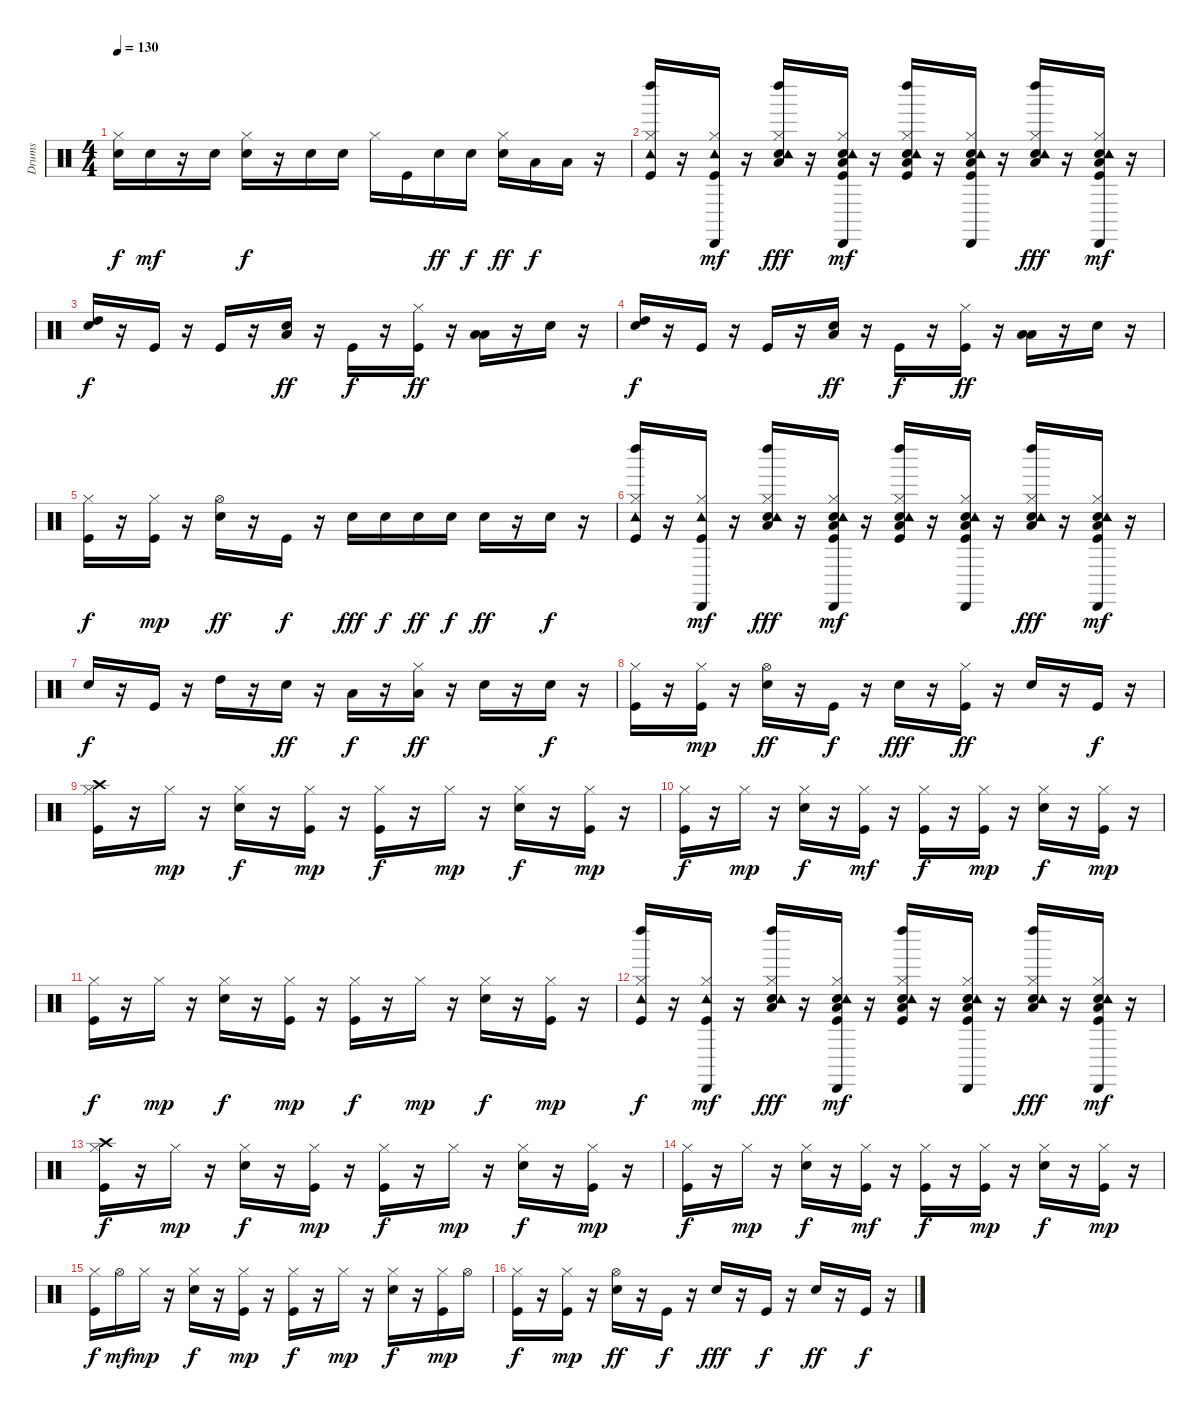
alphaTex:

\track ("Drums" "Drums") {instrument percussion}
\staff {score}
\articulation defaults
\ts (4 4)
\tempo 130
\clef neutral
\ks c
("Snare (hit) 2" "Hi-Hat (closed)").16{dy f} "Snare (hit) 2".16{dy mf} r.16 "Snare (hit) 2".16 ("Snare (hit) 2" "Hi-Hat (closed)").16{dy f} r.16 "Snare (hit) 2".16 "Snare (hit) 2".16 "Hi-Hat (closed)".16 "Kick (hit)".16 "Snare (hit) 2".16{dy ff} "Snare (hit) 2".16{dy f} ("Snare (hit) 2" "Hi-Hat (closed)").16{dy ff} "Low Tom (hit)".16{dy f} "Low Floor Tom (hit)".16 r.16 |
("Kick (hit)" "Hi-Hat (closed)" "Tambourine (hit)" "Left Maraca (hit)").16 r.16 ("Kick (hit)" "Hi-Hat (closed)" "Tambourine (hit)" "Cabasa (hit)").16{dy mf} r.16 ("Snare (hit) 2" "Hi-Hat (closed)" "Low Floor Tom (hit)" "Tambourine (hit)" "Left Maraca (hit)").16{dy fff} r.16 ("Kick (hit)" "Snare (hit) 2" "Hi-Hat (closed)" "Low Floor Tom (hit)" "Tambourine (hit)" "Cabasa (hit)").16{dy mf} r.16 ("Kick (hit)" "Snare (hit) 2" "Hi-Hat (closed)" "Low Floor Tom (hit)" "Tambourine (hit)" "Left Maraca (hit)").16 r.16 ("Kick (hit)" "Snare (hit) 2" "Hi-Hat (closed)" "Low Floor Tom (hit)" "Tambourine (hit)" "Cabasa (hit)").16 r.16 ("Snare (hit) 2" "Hi-Hat (closed)" "Low Floor Tom (hit)" "Tambourine (hit)" "Left Maraca (hit)").16{dy fff} r.16 ("Kick (hit)" "Snare (hit) 2" "Hi-Hat (closed)" "Low Floor Tom (hit)" "Tambourine (hit)" "Cabasa (hit)").16{dy mf} r.16 |
("Snare (hit) 2" "High Tom (hit)").16{dy f} r.16 "Kick (hit)".16 r.16 "Kick (hit)".16 r.16 ("Snare (hit) 2" "Low Tom (hit)").16{dy ff} r.16 "Kick (hit)".16{dy f} r.16 ("Kick (hit)" "Hi-Hat (closed)").16{dy ff} r.16 ("Low Floor Tom (hit)" "Low Tom (hit)").16 r.16 "Snare (hit) 2".16 r.16 |
("Snare (hit) 2" "High Tom (hit)").16{dy f} r.16 "Kick (hit)".16 r.16 "Kick (hit)".16 r.16 ("Snare (hit) 2" "Low Tom (hit)").16{dy ff} r.16 "Kick (hit)".16{dy f} r.16 ("Kick (hit)" "Hi-Hat (closed)").16{dy ff} r.16 ("Low Floor Tom (hit)" "Low Tom (hit)").16 r.16 "Snare (hit) 2".16 r.16 |
("Kick (hit)" "Hi-Hat (closed)").16{dy f} r.16 ("Kick (hit)" "Hi-Hat (closed)").16{dy mp} r.16 ("Snare (hit) 2" "Hi-Hat (open)").16{dy ff} r.16 "Kick (hit)".16{dy f} r.16 "Snare (hit) 2".16{dy fff} "Snare (hit) 2".16{dy f} "Snare (hit) 2".16{dy ff} "Snare (hit) 2".16{dy f} "Snare (hit) 2".16{dy ff} r.16 "Snare (hit) 2".16{dy f} r.16 |
("Kick (hit)" "Hi-Hat (closed)" "Tambourine (hit)" "Left Maraca (hit)").16 r.16 ("Kick (hit)" "Hi-Hat (closed)" "Tambourine (hit)" "Cabasa (hit)").16{dy mf} r.16 ("Snare (hit) 2" "Hi-Hat (closed)" "Low Floor Tom (hit)" "Tambourine (hit)" "Left Maraca (hit)").16{dy fff} r.16 ("Kick (hit)" "Snare (hit) 2" "Hi-Hat (closed)" "Low Floor Tom (hit)" "Tambourine (hit)" "Cabasa (hit)").16{dy mf} r.16 ("Kick (hit)" "Snare (hit) 2" "Hi-Hat (closed)" "Low Floor Tom (hit)" "Tambourine (hit)" "Left Maraca (hit)").16 r.16 ("Kick (hit)" "Snare (hit) 2" "Hi-Hat (closed)" "Low Floor Tom (hit)" "Tambourine (hit)" "Cabasa (hit)").16 r.16 ("Snare (hit) 2" "Hi-Hat (closed)" "Low Floor Tom (hit)" "Tambourine (hit)" "Left Maraca (hit)").16{dy fff} r.16 ("Kick (hit)" "Snare (hit) 2" "Hi-Hat (closed)" "Low Floor Tom (hit)" "Tambourine (hit)" "Cabasa (hit)").16{dy mf} r.16 |
"Snare (hit) 2".16{dy f} r.16 "Kick (hit)".16 r.16 "High Tom (hit)".16 r.16 "Snare (hit) 2".16{dy ff} r.16 "Low Tom (hit)".16{dy f} r.16 ("Hi-Hat (closed)" "Low Tom (hit)").16{dy ff} r.16 "Snare (hit) 2".16 r.16 "Snare (hit) 2".16{dy f} r.16 |
("Kick (hit)" "Hi-Hat (closed)").16 r.16 ("Kick (hit)" "Hi-Hat (closed)").16{dy mp} r.16 ("Snare (hit) 2" "Hi-Hat (open)").16{dy ff} r.16 "Kick (hit)".16{dy f} r.16 "Snare (hit) 2".16{dy fff} r.16 ("Kick (hit)" "Hi-Hat (closed)").16{dy ff} r.16 "Snare (hit) 2".16 r.16 "Kick (hit)".16{dy f} r.16 |
("Kick (hit)" "Hi-Hat (closed)" "Crash high (hit)").16 r.16 "Hi-Hat (closed)".16{dy mp} r.16 ("Snare (hit) 2" "Hi-Hat (closed)").16{dy f} r.16 ("Kick (hit)" "Hi-Hat (closed)").16{dy mp} r.16 ("Kick (hit)" "Hi-Hat (closed)").16{dy f} r.16 "Hi-Hat (closed)".16{dy mp} r.16 ("Snare (hit) 2" "Hi-Hat (closed)").16{dy f} r.16 ("Kick (hit)" "Hi-Hat (closed)").16{dy mp} r.16 |
("Kick (hit)" "Hi-Hat (closed)").16{dy f} r.16 "Hi-Hat (closed)".16{dy mp} r.16 ("Snare (hit) 2" "Hi-Hat (closed)").16{dy f} r.16 ("Kick (hit)" "Hi-Hat (closed)").16{dy mf} r.16 ("Kick (hit)" "Hi-Hat (closed)").16{dy f} r.16 ("Kick (hit)" "Hi-Hat (closed)").16{dy mp} r.16 ("Snare (hit) 2" "Hi-Hat (closed)").16{dy f} r.16 ("Kick (hit)" "Hi-Hat (closed)").16{dy mp} r.16 |
("Kick (hit)" "Hi-Hat (closed)").16{dy f} r.16 "Hi-Hat (closed)".16{dy mp} r.16 ("Snare (hit) 2" "Hi-Hat (closed)").16{dy f} r.16 ("Kick (hit)" "Hi-Hat (closed)").16{dy mp} r.16 ("Kick (hit)" "Hi-Hat (closed)").16{dy f} r.16 "Hi-Hat (closed)".16{dy mp} r.16 ("Snare (hit) 2" "Hi-Hat (closed)").16{dy f} r.16 ("Kick (hit)" "Hi-Hat (closed)").16{dy mp} r.16 |
("Kick (hit)" "Hi-Hat (closed)" "Tambourine (hit)" "Left Maraca (hit)").16{dy f} r.16 ("Kick (hit)" "Hi-Hat (closed)" "Tambourine (hit)" "Cabasa (hit)").16{dy mf} r.16 ("Snare (hit) 2" "Hi-Hat (closed)" "Low Floor Tom (hit)" "Tambourine (hit)" "Left Maraca (hit)").16{dy fff} r.16 ("Kick (hit)" "Snare (hit) 2" "Hi-Hat (closed)" "Low Floor Tom (hit)" "Tambourine (hit)" "Cabasa (hit)").16{dy mf} r.16 ("Kick (hit)" "Snare (hit) 2" "Hi-Hat (closed)" "Low Floor Tom (hit)" "Tambourine (hit)" "Left Maraca (hit)").16 r.16 ("Kick (hit)" "Snare (hit) 2" "Hi-Hat (closed)" "Low Floor Tom (hit)" "Tambourine (hit)" "Cabasa (hit)").16 r.16 ("Snare (hit) 2" "Hi-Hat (closed)" "Low Floor Tom (hit)" "Tambourine (hit)" "Left Maraca (hit)").16{dy fff} r.16 ("Kick (hit)" "Snare (hit) 2" "Hi-Hat (closed)" "Low Floor Tom (hit)" "Tambourine (hit)" "Cabasa (hit)").16{dy mf} r.16 |
("Kick (hit)" "Hi-Hat (closed)" "Crash high (hit)").16{dy f} r.16 "Hi-Hat (closed)".16{dy mp} r.16 ("Snare (hit) 2" "Hi-Hat (closed)").16{dy f} r.16 ("Kick (hit)" "Hi-Hat (closed)").16{dy mp} r.16 ("Kick (hit)" "Hi-Hat (closed)").16{dy f} r.16 "Hi-Hat (closed)".16{dy mp} r.16 ("Snare (hit) 2" "Hi-Hat (closed)").16{dy f} r.16 ("Kick (hit)" "Hi-Hat (closed)").16{dy mp} r.16 |
("Kick (hit)" "Hi-Hat (closed)").16{dy f} r.16 "Hi-Hat (closed)".16{dy mp} r.16 ("Snare (hit) 2" "Hi-Hat (closed)").16{dy f} r.16 ("Kick (hit)" "Hi-Hat (closed)").16{dy mf} r.16 ("Kick (hit)" "Hi-Hat (closed)").16{dy f} r.16 ("Kick (hit)" "Hi-Hat (closed)").16{dy mp} r.16 ("Snare (hit) 2" "Hi-Hat (closed)").16{dy f} r.16 ("Kick (hit)" "Hi-Hat (closed)").16{dy mp} r.16 |
("Kick (hit)" "Hi-Hat (closed)").16{dy f} "Hi-Hat (open)".16{dy mf} "Hi-Hat (closed)".16{dy mp} r.16 ("Snare (hit) 2" "Hi-Hat (closed)").16{dy f} r.16 ("Kick (hit)" "Hi-Hat (closed)").16{dy mp} r.16 ("Kick (hit)" "Hi-Hat (closed)").16{dy f} r.16 "Hi-Hat (closed)".16{dy mp} r.16 ("Snare (hit) 2" "Hi-Hat (closed)").16{dy f} r.16 ("Kick (hit)" "Hi-Hat (closed)").16{dy mp} "Hi-Hat (open)".16 |
("Kick (hit)" "Hi-Hat (closed)").16{dy f} r.16 ("Kick (hit)" "Hi-Hat (closed)").16{dy mp} r.16 ("Snare (hit) 2" "Hi-Hat (open)").16{dy ff} r.16 "Kick (hit)".16{dy f} r.16 "Snare (hit) 2".16{dy fff} r.16 "Kick (hit)".16{dy f} r.16 "Snare (hit) 2".16{dy ff} r.16 "Kick (hit)".16{dy f} r.16
